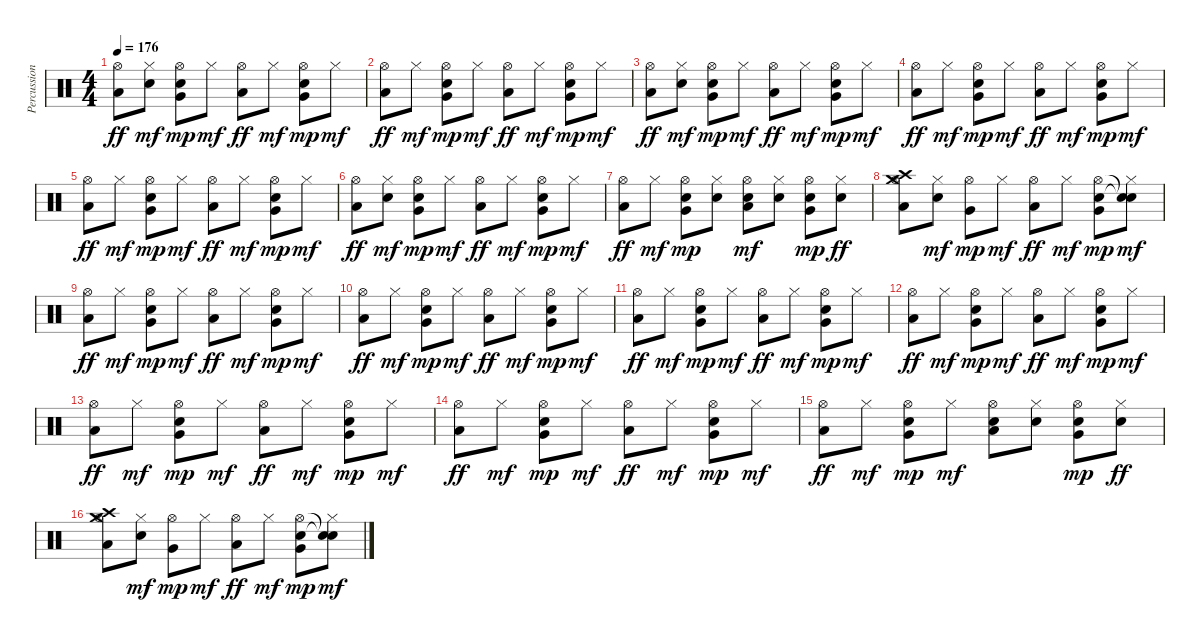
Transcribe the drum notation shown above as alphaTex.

\track ("Percussions" "Percussion") {instrument percussion}
\staff {score}
\articulation defaults
\ts (4 4)
\tempo 176
\clef neutral
\ks c
("Hi-Hat (open)" "Low Floor Tom (hit)").8{dy ff} ("Hi-Hat (closed)" "Electric Snare (hit)").8{dy mf} ("Hi-Hat (open)" "Electric Snare (hit)" "Very Low Tom (hit)").8{dy mp} "Hi-Hat (closed)".8{dy mf} ("Hi-Hat (open)" "Low Floor Tom (hit)").8{dy ff} "Hi-Hat (closed)".8{dy mf} ("Hi-Hat (open)" "Electric Snare (hit)" "Very Low Tom (hit)").8{dy mp} "Hi-Hat (closed)".8{dy mf} |
("Hi-Hat (open)" "Low Floor Tom (hit)").8{dy ff} "Hi-Hat (closed)".8{dy mf} ("Hi-Hat (open)" "Electric Snare (hit)" "Very Low Tom (hit)").8{dy mp} "Hi-Hat (closed)".8{dy mf} ("Hi-Hat (open)" "Low Floor Tom (hit)").8{dy ff} "Hi-Hat (closed)".8{dy mf} ("Hi-Hat (open)" "Electric Snare (hit)" "Very Low Tom (hit)").8{dy mp} "Hi-Hat (closed)".8{dy mf} |
("Hi-Hat (open)" "Low Floor Tom (hit)").8{dy ff} ("Hi-Hat (closed)" "Electric Snare (hit)").8{dy mf} ("Hi-Hat (open)" "Electric Snare (hit)" "Very Low Tom (hit)").8{dy mp} "Hi-Hat (closed)".8{dy mf} ("Hi-Hat (open)" "Low Floor Tom (hit)").8{dy ff} "Hi-Hat (closed)".8{dy mf} ("Hi-Hat (open)" "Electric Snare (hit)" "Very Low Tom (hit)").8{dy mp} "Hi-Hat (closed)".8{dy mf} |
("Hi-Hat (open)" "Low Floor Tom (hit)").8{dy ff} "Hi-Hat (closed)".8{dy mf} ("Hi-Hat (open)" "Electric Snare (hit)" "Very Low Tom (hit)").8{dy mp} "Hi-Hat (closed)".8{dy mf} ("Hi-Hat (open)" "Low Floor Tom (hit)").8{dy ff} "Hi-Hat (closed)".8{dy mf} ("Hi-Hat (open)" "Electric Snare (hit)" "Very Low Tom (hit)").8{dy mp} "Hi-Hat (closed)".8{dy mf} |
("Hi-Hat (open)" "Low Floor Tom (hit)").8{dy ff} "Hi-Hat (closed)".8{dy mf} ("Hi-Hat (open)" "Electric Snare (hit)" "Very Low Tom (hit)").8{dy mp} "Hi-Hat (closed)".8{dy mf} ("Hi-Hat (open)" "Low Floor Tom (hit)").8{dy ff} "Hi-Hat (closed)".8{dy mf} ("Hi-Hat (open)" "Electric Snare (hit)" "Very Low Tom (hit)").8{dy mp} "Hi-Hat (closed)".8{dy mf} |
("Hi-Hat (open)" "Low Floor Tom (hit)").8{dy ff} ("Hi-Hat (closed)" "Electric Snare (hit)").8{dy mf} ("Hi-Hat (open)" "Electric Snare (hit)" "Very Low Tom (hit)").8{dy mp} "Hi-Hat (closed)".8{dy mf} ("Hi-Hat (open)" "Low Floor Tom (hit)").8{dy ff} "Hi-Hat (closed)".8{dy mf} ("Hi-Hat (open)" "Electric Snare (hit)" "Very Low Tom (hit)").8{dy mp} "Hi-Hat (closed)".8{dy mf} |
("Hi-Hat (open)" "Low Floor Tom (hit)").8{dy ff} "Hi-Hat (closed)".8{dy mf} ("Hi-Hat (open)" "Electric Snare (hit)" "Very Low Tom (hit)").8{dy mp} ("Hi-Hat (closed)" "Electric Snare (hit)").8 ("Hi-Hat (open)" "Low Floor Tom (hit)" "Electric Snare (hit)").8{dy mf} ("Hi-Hat (closed)" "Electric Snare (hit)").8 ("Hi-Hat (open)" "Very Low Tom (hit)" "Electric Snare (hit)").8{dy mp} ("Hi-Hat (closed)" "Electric Snare (hit)").8{dy ff} |
("Crash medium (hit)" "Crash high (hit)" "Hi-Hat (open)" "Low Floor Tom (hit)").8 ("Hi-Hat (closed)" "Electric Snare (hit)").8{dy mf} ("Hi-Hat (open)" "Very Low Tom (hit)").8{dy mp} "Hi-Hat (closed)".8{dy mf} ("Hi-Hat (open)" "Low Floor Tom (hit)").8{dy ff} "Hi-Hat (closed)".8{dy mf} ("Hi-Hat (open)" "Electric Snare (hit)" "Very Low Tom (hit)").8{dy mp} ("Snare (hit)"{t} "Snare (hit)"{t} "Hi-Hat (closed)").8{dy mf} |
("Hi-Hat (open)" "Low Floor Tom (hit)").8{dy ff} "Hi-Hat (closed)".8{dy mf} ("Hi-Hat (open)" "Electric Snare (hit)" "Very Low Tom (hit)").8{dy mp} "Hi-Hat (closed)".8{dy mf} ("Hi-Hat (open)" "Low Floor Tom (hit)").8{dy ff} "Hi-Hat (closed)".8{dy mf} ("Hi-Hat (open)" "Electric Snare (hit)" "Very Low Tom (hit)").8{dy mp} "Hi-Hat (closed)".8{dy mf} |
("Hi-Hat (open)" "Low Floor Tom (hit)").8{dy ff} "Hi-Hat (closed)".8{dy mf} ("Hi-Hat (open)" "Electric Snare (hit)" "Very Low Tom (hit)").8{dy mp} "Hi-Hat (closed)".8{dy mf} ("Hi-Hat (open)" "Low Floor Tom (hit)").8{dy ff} "Hi-Hat (closed)".8{dy mf} ("Hi-Hat (open)" "Electric Snare (hit)" "Very Low Tom (hit)").8{dy mp} "Hi-Hat (closed)".8{dy mf} |
("Hi-Hat (open)" "Low Floor Tom (hit)").8{dy ff} "Hi-Hat (closed)".8{dy mf} ("Hi-Hat (open)" "Electric Snare (hit)" "Very Low Tom (hit)").8{dy mp} "Hi-Hat (closed)".8{dy mf} ("Hi-Hat (open)" "Low Floor Tom (hit)").8{dy ff} "Hi-Hat (closed)".8{dy mf} ("Hi-Hat (open)" "Electric Snare (hit)" "Very Low Tom (hit)").8{dy mp} "Hi-Hat (closed)".8{dy mf} |
("Hi-Hat (open)" "Low Floor Tom (hit)").8{dy ff} "Hi-Hat (closed)".8{dy mf} ("Hi-Hat (open)" "Electric Snare (hit)" "Very Low Tom (hit)").8{dy mp} "Hi-Hat (closed)".8{dy mf} ("Hi-Hat (open)" "Low Floor Tom (hit)").8{dy ff} "Hi-Hat (closed)".8{dy mf} ("Hi-Hat (open)" "Electric Snare (hit)" "Very Low Tom (hit)").8{dy mp} "Hi-Hat (closed)".8{dy mf} |
("Hi-Hat (open)" "Low Floor Tom (hit)").8{dy ff} "Hi-Hat (closed)".8{dy mf} ("Hi-Hat (open)" "Electric Snare (hit)" "Very Low Tom (hit)").8{dy mp} "Hi-Hat (closed)".8{dy mf} ("Hi-Hat (open)" "Low Floor Tom (hit)").8{dy ff} "Hi-Hat (closed)".8{dy mf} ("Hi-Hat (open)" "Electric Snare (hit)" "Very Low Tom (hit)").8{dy mp} "Hi-Hat (closed)".8{dy mf} |
("Hi-Hat (open)" "Low Floor Tom (hit)").8{dy ff} "Hi-Hat (closed)".8{dy mf} ("Hi-Hat (open)" "Electric Snare (hit)" "Very Low Tom (hit)").8{dy mp} "Hi-Hat (closed)".8{dy mf} ("Hi-Hat (open)" "Low Floor Tom (hit)").8{dy ff} "Hi-Hat (closed)".8{dy mf} ("Hi-Hat (open)" "Electric Snare (hit)" "Very Low Tom (hit)").8{dy mp} "Hi-Hat (closed)".8{dy mf} |
("Hi-Hat (open)" "Low Floor Tom (hit)").8{dy ff} "Hi-Hat (closed)".8{dy mf} ("Hi-Hat (open)" "Electric Snare (hit)" "Very Low Tom (hit)").8{dy mp} "Hi-Hat (closed)".8{dy mf} ("Hi-Hat (open)" "Low Floor Tom (hit)" "Electric Snare (hit)").8 ("Hi-Hat (closed)" "Electric Snare (hit)").8 ("Hi-Hat (open)" "Very Low Tom (hit)" "Electric Snare (hit)").8{dy mp} ("Hi-Hat (closed)" "Electric Snare (hit)").8{dy ff} |
("Crash medium (hit)" "Crash high (hit)" "Hi-Hat (open)" "Low Floor Tom (hit)").8 ("Hi-Hat (closed)" "Electric Snare (hit)").8{dy mf} ("Hi-Hat (open)" "Very Low Tom (hit)").8{dy mp} "Hi-Hat (closed)".8{dy mf} ("Hi-Hat (open)" "Low Floor Tom (hit)").8{dy ff} "Hi-Hat (closed)".8{dy mf} ("Hi-Hat (open)" "Electric Snare (hit)" "Very Low Tom (hit)").8{dy mp} ("Snare (hit)"{t} "Snare (hit)"{t} "Hi-Hat (closed)").8{dy mf}
